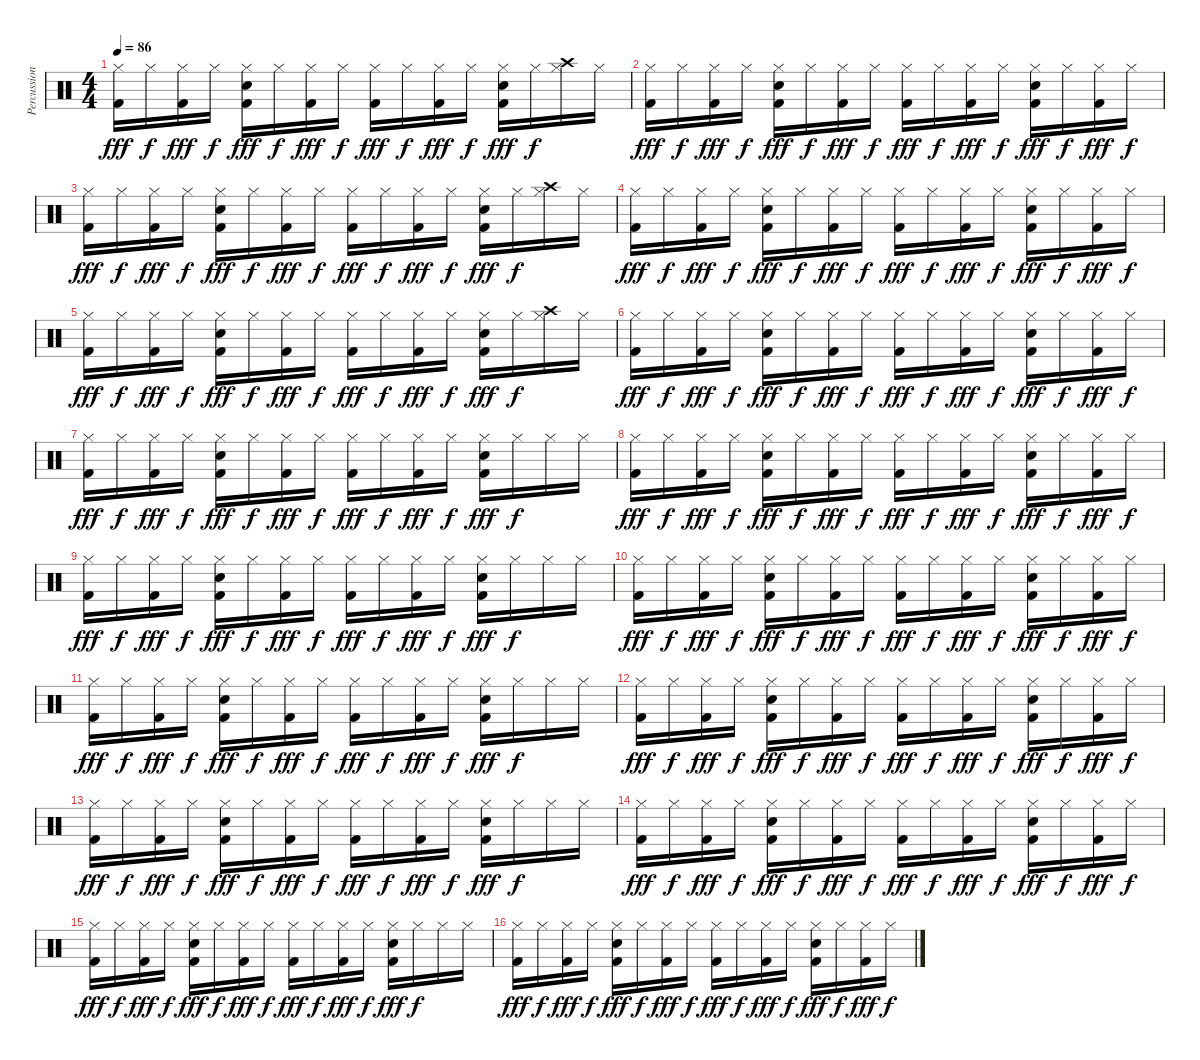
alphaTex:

\track ("Percussion" "Percussion") {instrument percussion}
\staff {score}
\articulation defaults
\ts (4 4)
\tempo 86
\clef neutral
\ks c
("Hi-Hat (closed)" "Kick (hit) 2").16{dy fff} "Hi-Hat (closed)".16{dy f} ("Hi-Hat (closed)" "Kick (hit) 2").16{dy fff} "Hi-Hat (closed)".16{dy f} ("Hi-Hat (closed)" "Electric Snare (hit)" "Kick (hit) 2").16{dy fff} "Hi-Hat (closed)".16{dy f} ("Hi-Hat (closed)" "Kick (hit) 2").16{dy fff} "Hi-Hat (closed)".16{dy f} ("Hi-Hat (closed)" "Kick (hit) 2").16{dy fff} "Hi-Hat (closed)".16{dy f} ("Hi-Hat (closed)" "Kick (hit) 2").16{dy fff} "Hi-Hat (closed)".16{dy f} ("Hi-Hat (closed)" "Electric Snare (hit)" "Kick (hit) 2").16{dy fff} "Hi-Hat (closed)".16{dy f} ("Hi-Hat (closed)" "Crash high (hit)").16 "Hi-Hat (closed)".16 |
("Hi-Hat (closed)" "Kick (hit) 2").16{dy fff} "Hi-Hat (closed)".16{dy f} ("Hi-Hat (closed)" "Kick (hit) 2").16{dy fff} "Hi-Hat (closed)".16{dy f} ("Hi-Hat (closed)" "Electric Snare (hit)" "Kick (hit) 2").16{dy fff} "Hi-Hat (closed)".16{dy f} ("Hi-Hat (closed)" "Kick (hit) 2").16{dy fff} "Hi-Hat (closed)".16{dy f} ("Hi-Hat (closed)" "Kick (hit) 2").16{dy fff} "Hi-Hat (closed)".16{dy f} ("Hi-Hat (closed)" "Kick (hit) 2").16{dy fff} "Hi-Hat (closed)".16{dy f} ("Hi-Hat (closed)" "Electric Snare (hit)" "Kick (hit) 2").16{dy fff} "Hi-Hat (closed)".16{dy f} ("Hi-Hat (closed)" "Kick (hit) 2").16{dy fff} "Hi-Hat (closed)".16{dy f} |
("Hi-Hat (closed)" "Kick (hit) 2").16{dy fff} "Hi-Hat (closed)".16{dy f} ("Hi-Hat (closed)" "Kick (hit) 2").16{dy fff} "Hi-Hat (closed)".16{dy f} ("Hi-Hat (closed)" "Electric Snare (hit)" "Kick (hit) 2").16{dy fff} "Hi-Hat (closed)".16{dy f} ("Hi-Hat (closed)" "Kick (hit) 2").16{dy fff} "Hi-Hat (closed)".16{dy f} ("Hi-Hat (closed)" "Kick (hit) 2").16{dy fff} "Hi-Hat (closed)".16{dy f} ("Hi-Hat (closed)" "Kick (hit) 2").16{dy fff} "Hi-Hat (closed)".16{dy f} ("Hi-Hat (closed)" "Electric Snare (hit)" "Kick (hit) 2").16{dy fff} "Hi-Hat (closed)".16{dy f} ("Hi-Hat (closed)" "Crash high (hit)").16 "Hi-Hat (closed)".16 |
("Hi-Hat (closed)" "Kick (hit) 2").16{dy fff} "Hi-Hat (closed)".16{dy f} ("Hi-Hat (closed)" "Kick (hit) 2").16{dy fff} "Hi-Hat (closed)".16{dy f} ("Hi-Hat (closed)" "Electric Snare (hit)" "Kick (hit) 2").16{dy fff} "Hi-Hat (closed)".16{dy f} ("Hi-Hat (closed)" "Kick (hit) 2").16{dy fff} "Hi-Hat (closed)".16{dy f} ("Hi-Hat (closed)" "Kick (hit) 2").16{dy fff} "Hi-Hat (closed)".16{dy f} ("Hi-Hat (closed)" "Kick (hit) 2").16{dy fff} "Hi-Hat (closed)".16{dy f} ("Hi-Hat (closed)" "Electric Snare (hit)" "Kick (hit) 2").16{dy fff} "Hi-Hat (closed)".16{dy f} ("Hi-Hat (closed)" "Kick (hit) 2").16{dy fff} "Hi-Hat (closed)".16{dy f} |
("Hi-Hat (closed)" "Kick (hit) 2").16{dy fff} "Hi-Hat (closed)".16{dy f} ("Hi-Hat (closed)" "Kick (hit) 2").16{dy fff} "Hi-Hat (closed)".16{dy f} ("Hi-Hat (closed)" "Electric Snare (hit)" "Kick (hit) 2").16{dy fff} "Hi-Hat (closed)".16{dy f} ("Hi-Hat (closed)" "Kick (hit) 2").16{dy fff} "Hi-Hat (closed)".16{dy f} ("Hi-Hat (closed)" "Kick (hit) 2").16{dy fff} "Hi-Hat (closed)".16{dy f} ("Hi-Hat (closed)" "Kick (hit) 2").16{dy fff} "Hi-Hat (closed)".16{dy f} ("Hi-Hat (closed)" "Electric Snare (hit)" "Kick (hit) 2").16{dy fff} "Hi-Hat (closed)".16{dy f} ("Hi-Hat (closed)" "Crash high (hit)").16 "Hi-Hat (closed)".16 |
("Hi-Hat (closed)" "Kick (hit) 2").16{dy fff} "Hi-Hat (closed)".16{dy f} ("Hi-Hat (closed)" "Kick (hit) 2").16{dy fff} "Hi-Hat (closed)".16{dy f} ("Hi-Hat (closed)" "Electric Snare (hit)" "Kick (hit) 2").16{dy fff} "Hi-Hat (closed)".16{dy f} ("Hi-Hat (closed)" "Kick (hit) 2").16{dy fff} "Hi-Hat (closed)".16{dy f} ("Hi-Hat (closed)" "Kick (hit) 2").16{dy fff} "Hi-Hat (closed)".16{dy f} ("Hi-Hat (closed)" "Kick (hit) 2").16{dy fff} "Hi-Hat (closed)".16{dy f} ("Hi-Hat (closed)" "Electric Snare (hit)" "Kick (hit) 2").16{dy fff} "Hi-Hat (closed)".16{dy f} ("Hi-Hat (closed)" "Kick (hit) 2").16{dy fff} "Hi-Hat (closed)".16{dy f} |
("Hi-Hat (closed)" "Kick (hit) 2").16{dy fff} "Hi-Hat (closed)".16{dy f} ("Hi-Hat (closed)" "Kick (hit) 2").16{dy fff} "Hi-Hat (closed)".16{dy f} ("Hi-Hat (closed)" "Electric Snare (hit)" "Kick (hit) 2").16{dy fff} "Hi-Hat (closed)".16{dy f} ("Hi-Hat (closed)" "Kick (hit) 2").16{dy fff} "Hi-Hat (closed)".16{dy f} ("Hi-Hat (closed)" "Kick (hit) 2").16{dy fff} "Hi-Hat (closed)".16{dy f} ("Hi-Hat (closed)" "Kick (hit) 2").16{dy fff} "Hi-Hat (closed)".16{dy f} ("Hi-Hat (closed)" "Electric Snare (hit)" "Kick (hit) 2").16{dy fff} "Hi-Hat (closed)".16{dy f} "Hi-Hat (closed)".16 "Hi-Hat (closed)".16 |
("Hi-Hat (closed)" "Kick (hit) 2").16{dy fff} "Hi-Hat (closed)".16{dy f} ("Hi-Hat (closed)" "Kick (hit) 2").16{dy fff} "Hi-Hat (closed)".16{dy f} ("Hi-Hat (closed)" "Electric Snare (hit)" "Kick (hit) 2").16{dy fff} "Hi-Hat (closed)".16{dy f} ("Hi-Hat (closed)" "Kick (hit) 2").16{dy fff} "Hi-Hat (closed)".16{dy f} ("Hi-Hat (closed)" "Kick (hit) 2").16{dy fff} "Hi-Hat (closed)".16{dy f} ("Hi-Hat (closed)" "Kick (hit) 2").16{dy fff} "Hi-Hat (closed)".16{dy f} ("Hi-Hat (closed)" "Electric Snare (hit)" "Kick (hit) 2").16{dy fff} "Hi-Hat (closed)".16{dy f} ("Hi-Hat (closed)" "Kick (hit) 2").16{dy fff} "Hi-Hat (closed)".16{dy f} |
("Hi-Hat (closed)" "Kick (hit) 2").16{dy fff} "Hi-Hat (closed)".16{dy f} ("Hi-Hat (closed)" "Kick (hit) 2").16{dy fff} "Hi-Hat (closed)".16{dy f} ("Hi-Hat (closed)" "Electric Snare (hit)" "Kick (hit) 2").16{dy fff} "Hi-Hat (closed)".16{dy f} ("Hi-Hat (closed)" "Kick (hit) 2").16{dy fff} "Hi-Hat (closed)".16{dy f} ("Hi-Hat (closed)" "Kick (hit) 2").16{dy fff} "Hi-Hat (closed)".16{dy f} ("Hi-Hat (closed)" "Kick (hit) 2").16{dy fff} "Hi-Hat (closed)".16{dy f} ("Hi-Hat (closed)" "Electric Snare (hit)" "Kick (hit) 2").16{dy fff} "Hi-Hat (closed)".16{dy f} "Hi-Hat (closed)".16 "Hi-Hat (closed)".16 |
("Hi-Hat (closed)" "Kick (hit) 2").16{dy fff} "Hi-Hat (closed)".16{dy f} ("Hi-Hat (closed)" "Kick (hit) 2").16{dy fff} "Hi-Hat (closed)".16{dy f} ("Hi-Hat (closed)" "Electric Snare (hit)" "Kick (hit) 2").16{dy fff} "Hi-Hat (closed)".16{dy f} ("Hi-Hat (closed)" "Kick (hit) 2").16{dy fff} "Hi-Hat (closed)".16{dy f} ("Hi-Hat (closed)" "Kick (hit) 2").16{dy fff} "Hi-Hat (closed)".16{dy f} ("Hi-Hat (closed)" "Kick (hit) 2").16{dy fff} "Hi-Hat (closed)".16{dy f} ("Hi-Hat (closed)" "Electric Snare (hit)" "Kick (hit) 2").16{dy fff} "Hi-Hat (closed)".16{dy f} ("Hi-Hat (closed)" "Kick (hit) 2").16{dy fff} "Hi-Hat (closed)".16{dy f} |
("Hi-Hat (closed)" "Kick (hit) 2").16{dy fff} "Hi-Hat (closed)".16{dy f} ("Hi-Hat (closed)" "Kick (hit) 2").16{dy fff} "Hi-Hat (closed)".16{dy f} ("Hi-Hat (closed)" "Electric Snare (hit)" "Kick (hit) 2").16{dy fff} "Hi-Hat (closed)".16{dy f} ("Hi-Hat (closed)" "Kick (hit) 2").16{dy fff} "Hi-Hat (closed)".16{dy f} ("Hi-Hat (closed)" "Kick (hit) 2").16{dy fff} "Hi-Hat (closed)".16{dy f} ("Hi-Hat (closed)" "Kick (hit) 2").16{dy fff} "Hi-Hat (closed)".16{dy f} ("Hi-Hat (closed)" "Electric Snare (hit)" "Kick (hit) 2").16{dy fff} "Hi-Hat (closed)".16{dy f} "Hi-Hat (closed)".16 "Hi-Hat (closed)".16 |
("Hi-Hat (closed)" "Kick (hit) 2").16{dy fff} "Hi-Hat (closed)".16{dy f} ("Hi-Hat (closed)" "Kick (hit) 2").16{dy fff} "Hi-Hat (closed)".16{dy f} ("Hi-Hat (closed)" "Electric Snare (hit)" "Kick (hit) 2").16{dy fff} "Hi-Hat (closed)".16{dy f} ("Hi-Hat (closed)" "Kick (hit) 2").16{dy fff} "Hi-Hat (closed)".16{dy f} ("Hi-Hat (closed)" "Kick (hit) 2").16{dy fff} "Hi-Hat (closed)".16{dy f} ("Hi-Hat (closed)" "Kick (hit) 2").16{dy fff} "Hi-Hat (closed)".16{dy f} ("Hi-Hat (closed)" "Electric Snare (hit)" "Kick (hit) 2").16{dy fff} "Hi-Hat (closed)".16{dy f} ("Hi-Hat (closed)" "Kick (hit) 2").16{dy fff} "Hi-Hat (closed)".16{dy f} |
("Hi-Hat (closed)" "Kick (hit) 2").16{dy fff} "Hi-Hat (closed)".16{dy f} ("Hi-Hat (closed)" "Kick (hit) 2").16{dy fff} "Hi-Hat (closed)".16{dy f} ("Hi-Hat (closed)" "Electric Snare (hit)" "Kick (hit) 2").16{dy fff} "Hi-Hat (closed)".16{dy f} ("Hi-Hat (closed)" "Kick (hit) 2").16{dy fff} "Hi-Hat (closed)".16{dy f} ("Hi-Hat (closed)" "Kick (hit) 2").16{dy fff} "Hi-Hat (closed)".16{dy f} ("Hi-Hat (closed)" "Kick (hit) 2").16{dy fff} "Hi-Hat (closed)".16{dy f} ("Hi-Hat (closed)" "Electric Snare (hit)" "Kick (hit) 2").16{dy fff} "Hi-Hat (closed)".16{dy f} "Hi-Hat (closed)".16 "Hi-Hat (closed)".16 |
("Hi-Hat (closed)" "Kick (hit) 2").16{dy fff} "Hi-Hat (closed)".16{dy f} ("Hi-Hat (closed)" "Kick (hit) 2").16{dy fff} "Hi-Hat (closed)".16{dy f} ("Hi-Hat (closed)" "Electric Snare (hit)" "Kick (hit) 2").16{dy fff} "Hi-Hat (closed)".16{dy f} ("Hi-Hat (closed)" "Kick (hit) 2").16{dy fff} "Hi-Hat (closed)".16{dy f} ("Hi-Hat (closed)" "Kick (hit) 2").16{dy fff} "Hi-Hat (closed)".16{dy f} ("Hi-Hat (closed)" "Kick (hit) 2").16{dy fff} "Hi-Hat (closed)".16{dy f} ("Hi-Hat (closed)" "Electric Snare (hit)" "Kick (hit) 2").16{dy fff} "Hi-Hat (closed)".16{dy f} ("Hi-Hat (closed)" "Kick (hit) 2").16{dy fff} "Hi-Hat (closed)".16{dy f} |
("Hi-Hat (closed)" "Kick (hit) 2").16{dy fff} "Hi-Hat (closed)".16{dy f} ("Hi-Hat (closed)" "Kick (hit) 2").16{dy fff} "Hi-Hat (closed)".16{dy f} ("Hi-Hat (closed)" "Electric Snare (hit)" "Kick (hit) 2").16{dy fff} "Hi-Hat (closed)".16{dy f} ("Hi-Hat (closed)" "Kick (hit) 2").16{dy fff} "Hi-Hat (closed)".16{dy f} ("Hi-Hat (closed)" "Kick (hit) 2").16{dy fff} "Hi-Hat (closed)".16{dy f} ("Hi-Hat (closed)" "Kick (hit) 2").16{dy fff} "Hi-Hat (closed)".16{dy f} ("Hi-Hat (closed)" "Electric Snare (hit)" "Kick (hit) 2").16{dy fff} "Hi-Hat (closed)".16{dy f} "Hi-Hat (closed)".16 "Hi-Hat (closed)".16 |
("Hi-Hat (closed)" "Kick (hit) 2").16{dy fff} "Hi-Hat (closed)".16{dy f} ("Hi-Hat (closed)" "Kick (hit) 2").16{dy fff} "Hi-Hat (closed)".16{dy f} ("Hi-Hat (closed)" "Electric Snare (hit)" "Kick (hit) 2").16{dy fff} "Hi-Hat (closed)".16{dy f} ("Hi-Hat (closed)" "Kick (hit) 2").16{dy fff} "Hi-Hat (closed)".16{dy f} ("Hi-Hat (closed)" "Kick (hit) 2").16{dy fff} "Hi-Hat (closed)".16{dy f} ("Hi-Hat (closed)" "Kick (hit) 2").16{dy fff} "Hi-Hat (closed)".16{dy f} ("Hi-Hat (closed)" "Electric Snare (hit)" "Kick (hit) 2").16{dy fff} "Hi-Hat (closed)".16{dy f} ("Hi-Hat (closed)" "Kick (hit) 2").16{dy fff} "Hi-Hat (closed)".16{dy f}
